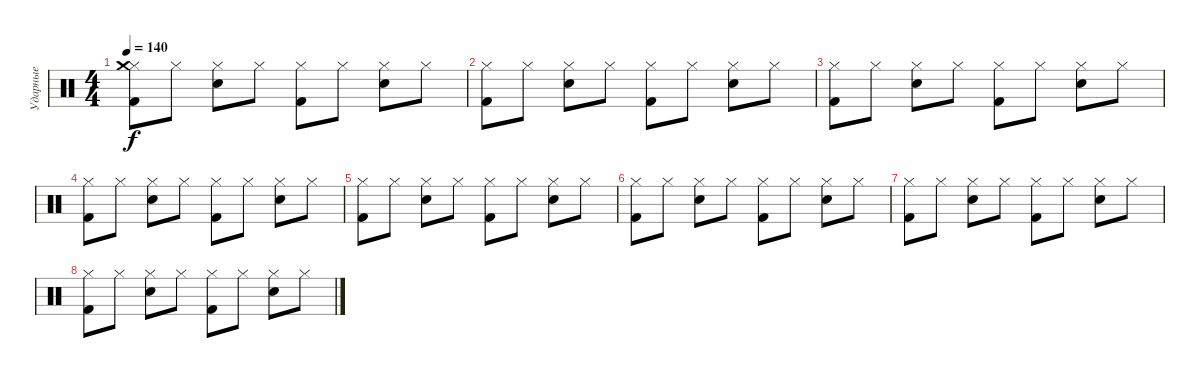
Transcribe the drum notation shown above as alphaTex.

\track ("Ударные" "Ударные") {instrument percussion}
\staff {score}
\articulation defaults
\ts (4 4)
\tempo 140
\clef neutral
\ks c
("Hi-Hat (closed)" "Kick (hit) 2" "Crash medium (hit)").8{dy f} "Hi-Hat (closed)".8 ("Hi-Hat (closed)" "Snare (hit) 2").8 "Hi-Hat (closed)".8 ("Hi-Hat (closed)" "Kick (hit) 2").8 "Hi-Hat (closed)".8 ("Hi-Hat (closed)" "Snare (hit) 2").8 "Hi-Hat (closed)".8 |
("Hi-Hat (closed)" "Kick (hit) 2").8 "Hi-Hat (closed)".8 ("Hi-Hat (closed)" "Snare (hit) 2").8 "Hi-Hat (closed)".8 ("Hi-Hat (closed)" "Kick (hit) 2").8 "Hi-Hat (closed)".8 ("Hi-Hat (closed)" "Snare (hit) 2").8 "Hi-Hat (closed)".8 |
("Hi-Hat (closed)" "Kick (hit) 2").8 "Hi-Hat (closed)".8 ("Hi-Hat (closed)" "Snare (hit) 2").8 "Hi-Hat (closed)".8 ("Hi-Hat (closed)" "Kick (hit) 2").8 "Hi-Hat (closed)".8 ("Hi-Hat (closed)" "Snare (hit) 2").8 "Hi-Hat (closed)".8 |
("Hi-Hat (closed)" "Kick (hit) 2").8 "Hi-Hat (closed)".8 ("Hi-Hat (closed)" "Snare (hit) 2").8 "Hi-Hat (closed)".8 ("Hi-Hat (closed)" "Kick (hit) 2").8 "Hi-Hat (closed)".8 ("Hi-Hat (closed)" "Snare (hit) 2").8 "Hi-Hat (closed)".8 |
("Hi-Hat (closed)" "Kick (hit) 2").8 "Hi-Hat (closed)".8 ("Hi-Hat (closed)" "Snare (hit) 2").8 "Hi-Hat (closed)".8 ("Hi-Hat (closed)" "Kick (hit) 2").8 "Hi-Hat (closed)".8 ("Hi-Hat (closed)" "Snare (hit) 2").8 "Hi-Hat (closed)".8 |
("Hi-Hat (closed)" "Kick (hit) 2").8 "Hi-Hat (closed)".8 ("Hi-Hat (closed)" "Snare (hit) 2").8 "Hi-Hat (closed)".8 ("Hi-Hat (closed)" "Kick (hit) 2").8 "Hi-Hat (closed)".8 ("Hi-Hat (closed)" "Snare (hit) 2").8 "Hi-Hat (closed)".8 |
("Hi-Hat (closed)" "Kick (hit) 2").8 "Hi-Hat (closed)".8 ("Hi-Hat (closed)" "Snare (hit) 2").8 "Hi-Hat (closed)".8 ("Hi-Hat (closed)" "Kick (hit) 2").8 "Hi-Hat (closed)".8 ("Hi-Hat (closed)" "Snare (hit) 2").8 "Hi-Hat (closed)".8 |
("Hi-Hat (closed)" "Kick (hit) 2").8 "Hi-Hat (closed)".8 ("Hi-Hat (closed)" "Snare (hit) 2").8 "Hi-Hat (closed)".8 ("Hi-Hat (closed)" "Kick (hit) 2").8 "Hi-Hat (closed)".8 ("Hi-Hat (closed)" "Snare (hit) 2").8 "Hi-Hat (closed)".8
